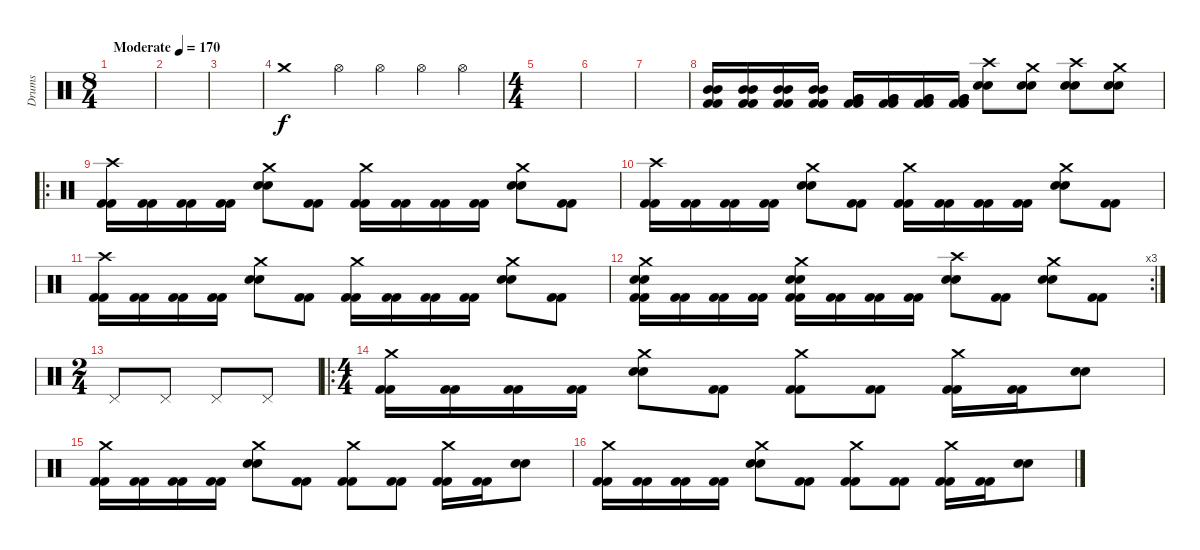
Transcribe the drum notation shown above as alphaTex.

\track ("Drums" "Drums") {instrument percussion}
\staff {score}
\articulation defaults
\ts (8 4)
\tempo (170 "Moderate")
\clef neutral
\ks c
|
|
|
"Crash medium (hit)".1 "Hi-Hat (open)".4 "Hi-Hat (open)".4 "Hi-Hat (open)".4 "Hi-Hat (open)".4 |
\ts (4 4)
|
|
|
("Mid Tom (hit)" "Mid Tom (hit)" "Kick (hit) 2" "Kick (hit) 2").16 ("Mid Tom (hit)" "Mid Tom (hit)" "Kick (hit) 2" "Kick (hit) 2").16 ("Mid Tom (hit)" "Mid Tom (hit)" "Kick (hit) 2" "Kick (hit) 2").16 ("Mid Tom (hit)" "Mid Tom (hit)" "Kick (hit) 2" "Kick (hit) 2").16 ("Very Low Tom (hit)" "Very Low Tom (hit)" "Kick (hit) 2" "Kick (hit) 2").16 ("Very Low Tom (hit)" "Very Low Tom (hit)" "Kick (hit) 2" "Kick (hit) 2").16 ("Very Low Tom (hit)" "Very Low Tom (hit)" "Kick (hit) 2" "Kick (hit) 2").16 ("Very Low Tom (hit)" "Very Low Tom (hit)" "Kick (hit) 2" "Kick (hit) 2").16 ("Crash high (hit)" "Snare (hit) 2" "Snare (hit) 2").8 ("Crash medium (hit)" "Snare (hit) 2" "Snare (hit) 2").8 ("Crash high (hit)" "Snare (hit) 2" "Snare (hit) 2").8 ("Crash medium (hit)" "Snare (hit) 2" "Snare (hit) 2").8 |
\ro
("Crash high (hit)" "Kick (hit) 2" "Kick (hit) 2").16 ("Kick (hit) 2" "Kick (hit) 2").16 ("Kick (hit) 2" "Kick (hit) 2").16 ("Kick (hit) 2" "Kick (hit) 2").16 ("Crash medium (hit)" "Snare (hit) 2" "Snare (hit) 2").8 ("Kick (hit) 2" "Kick (hit) 2").8 ("Crash medium (hit)" "Kick (hit) 2" "Kick (hit) 2").16 ("Kick (hit) 2" "Kick (hit) 2").16 ("Kick (hit) 2" "Kick (hit) 2").16 ("Kick (hit) 2" "Kick (hit) 2").16 ("Crash medium (hit)" "Snare (hit) 2" "Snare (hit) 2").8 ("Kick (hit) 2" "Kick (hit) 2").8 |
("Crash high (hit)" "Kick (hit) 2" "Kick (hit) 2").16 ("Kick (hit) 2" "Kick (hit) 2").16 ("Kick (hit) 2" "Kick (hit) 2").16 ("Kick (hit) 2" "Kick (hit) 2").16 ("Crash medium (hit)" "Snare (hit) 2" "Snare (hit) 2").8 ("Kick (hit) 2" "Kick (hit) 2").8 ("Crash medium (hit)" "Kick (hit) 2" "Kick (hit) 2").16 ("Kick (hit) 2" "Kick (hit) 2").16 ("Kick (hit) 2" "Kick (hit) 2").16 ("Kick (hit) 2" "Kick (hit) 2").16 ("Crash medium (hit)" "Snare (hit) 2" "Snare (hit) 2").8 ("Kick (hit) 2" "Kick (hit) 2").8 |
("Crash high (hit)" "Kick (hit) 2" "Kick (hit) 2").16 ("Kick (hit) 2" "Kick (hit) 2").16 ("Kick (hit) 2" "Kick (hit) 2").16 ("Kick (hit) 2" "Kick (hit) 2").16 ("Crash medium (hit)" "Snare (hit) 2" "Snare (hit) 2").8 ("Kick (hit) 2" "Kick (hit) 2").8 ("Crash medium (hit)" "Kick (hit) 2" "Kick (hit) 2").16 ("Kick (hit) 2" "Kick (hit) 2").16 ("Kick (hit) 2" "Kick (hit) 2").16 ("Kick (hit) 2" "Kick (hit) 2").16 ("Crash medium (hit)" "Snare (hit) 2" "Snare (hit) 2").8 ("Kick (hit) 2" "Kick (hit) 2").8 |
\rc 3
("Crash medium (hit)" "Kick (hit) 2" "Kick (hit) 2" "Snare (hit) 2" "Snare (hit) 2").16 ("Kick (hit) 2" "Kick (hit) 2").16 ("Kick (hit) 2" "Kick (hit) 2").16 ("Kick (hit) 2" "Kick (hit) 2").16 ("Crash medium (hit)" "Kick (hit) 2" "Kick (hit) 2" "Snare (hit) 2" "Snare (hit) 2").16 ("Kick (hit) 2" "Kick (hit) 2").16 ("Kick (hit) 2" "Kick (hit) 2").16 ("Kick (hit) 2" "Kick (hit) 2").16 ("Crash high (hit)" "Snare (hit) 2" "Snare (hit) 2").8 ("Kick (hit) 2" "Kick (hit) 2").8 ("Crash medium (hit)" "Snare (hit) 2" "Snare (hit) 2").8 ("Kick (hit) 2" "Kick (hit) 2").8 |
\ts (2 4)
"Pedal Hi-Hat (hit)".8 "Pedal Hi-Hat (hit)".8 "Pedal Hi-Hat (hit)".8 "Pedal Hi-Hat (hit)".8 |
\ro
\ts (4 4)
("Crash medium (hit)" "Kick (hit) 2" "Kick (hit) 2").16 ("Kick (hit) 2" "Kick (hit) 2").16 ("Kick (hit) 2" "Kick (hit) 2").16 ("Kick (hit) 2" "Kick (hit) 2").16 ("Crash medium (hit)" "Snare (hit) 2" "Snare (hit) 2").8 ("Kick (hit) 2" "Kick (hit) 2").8 ("Crash medium (hit)" "Kick (hit) 2" "Kick (hit) 2").8 ("Kick (hit) 2" "Kick (hit) 2").8 ("Crash medium (hit)" "Kick (hit) 2" "Kick (hit) 2").16 ("Kick (hit) 2" "Kick (hit) 2").16 ("Snare (hit) 2" "Snare (hit) 2").8 |
("Crash medium (hit)" "Kick (hit) 2" "Kick (hit) 2").16 ("Kick (hit) 2" "Kick (hit) 2").16 ("Kick (hit) 2" "Kick (hit) 2").16 ("Kick (hit) 2" "Kick (hit) 2").16 ("Crash medium (hit)" "Snare (hit) 2" "Snare (hit) 2").8 ("Kick (hit) 2" "Kick (hit) 2").8 ("Crash medium (hit)" "Kick (hit) 2" "Kick (hit) 2").8 ("Kick (hit) 2" "Kick (hit) 2").8 ("Crash medium (hit)" "Kick (hit) 2" "Kick (hit) 2").16 ("Kick (hit) 2" "Kick (hit) 2").16 ("Snare (hit) 2" "Snare (hit) 2").8 |
("Crash medium (hit)" "Kick (hit) 2" "Kick (hit) 2").16 ("Kick (hit) 2" "Kick (hit) 2").16 ("Kick (hit) 2" "Kick (hit) 2").16 ("Kick (hit) 2" "Kick (hit) 2").16 ("Crash medium (hit)" "Snare (hit) 2" "Snare (hit) 2").8 ("Kick (hit) 2" "Kick (hit) 2").8 ("Crash medium (hit)" "Kick (hit) 2" "Kick (hit) 2").8 ("Kick (hit) 2" "Kick (hit) 2").8 ("Crash medium (hit)" "Kick (hit) 2" "Kick (hit) 2").16 ("Kick (hit) 2" "Kick (hit) 2").16 ("Snare (hit) 2" "Snare (hit) 2").8
